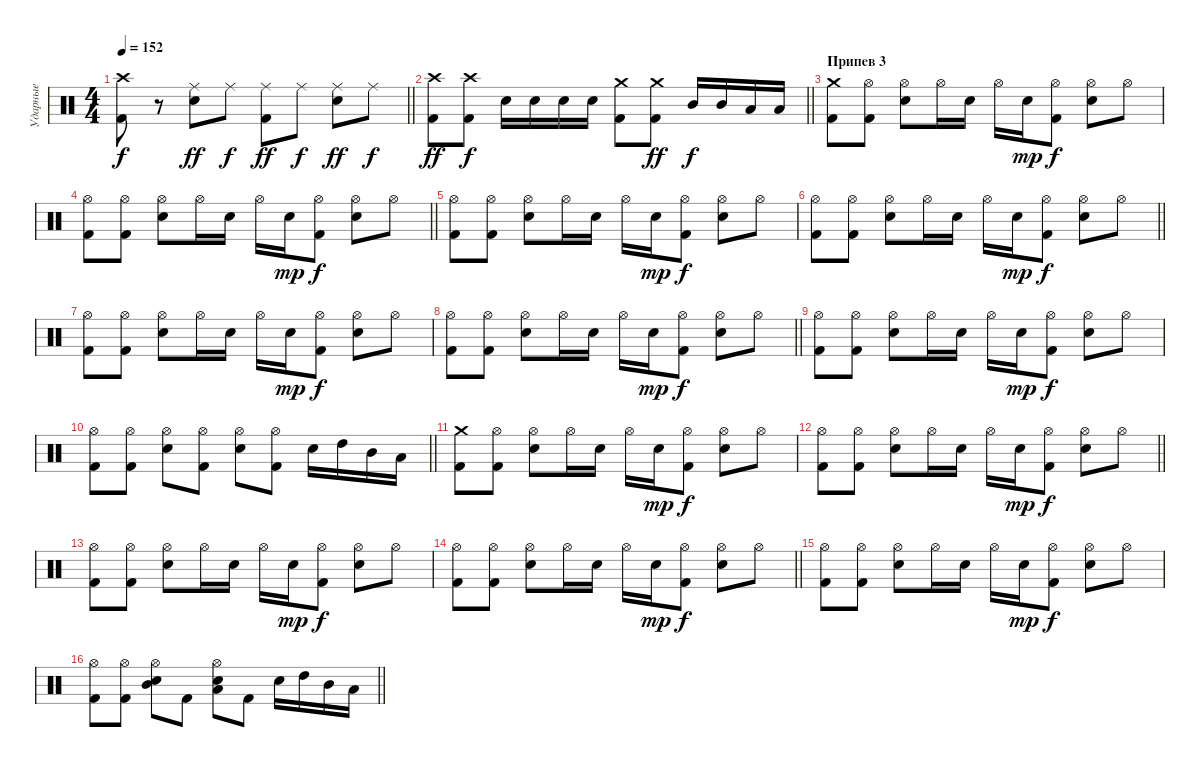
\track ("Ударные" "Ударные") {instrument percussion}
\staff {score}
\articulation defaults
\ts (4 4)
\tempo 152
\clef neutral
\barLineRight lightlight
\ks c
("Crash high (hit)" "Kick (hit) 2").8{dy f} r.8 ("Ride (middle)" "Snare (hit) 2").8{dy ff} "Ride (middle)".8{dy f} ("Ride (middle)" "Kick (hit) 2").8{dy ff} "Ride (middle)".8{dy f} ("Ride (middle)" "Snare (hit) 2").8{dy ff} "Ride (middle)".8{dy f} |
\barLineRight lightlight
("Crash high (hit)" "Kick (hit) 2").8{dy ff} ("Crash high (hit)" "Kick (hit) 2").8{dy f} "Snare (hit) 2".16 "Snare (hit) 2".16 "Snare (hit) 2".16 "Snare (hit) 2".16 ("Crash medium (hit)" "Kick (hit) 2").8 ("Crash medium (hit)" "Kick (hit) 2").8{dy ff} "Mid Tom (hit)".16{dy f} "Mid Tom (hit)".16 "Low Tom (hit)".16 "Low Tom (hit)".16 |
\section ("" "Припев 3")
("Crash medium (hit)" "Kick (hit) 2").8 ("Hi-Hat (open)" "Kick (hit) 2").8 ("Hi-Hat (open)" "Snare (hit) 2").8 "Hi-Hat (open)".16 "Snare (hit) 2".16 "Hi-Hat (open)".16 "Snare (hit) 2".16{dy mp} ("Hi-Hat (open)" "Kick (hit) 2").8{dy f} ("Hi-Hat (open)" "Snare (hit) 2").8 "Hi-Hat (open)".8 |
\barLineRight lightlight
("Hi-Hat (open)" "Kick (hit) 2").8 ("Hi-Hat (open)" "Kick (hit) 2").8 ("Hi-Hat (open)" "Snare (hit) 2").8 "Hi-Hat (open)".16 "Snare (hit) 2".16 "Hi-Hat (open)".16 "Snare (hit) 2".16{dy mp} ("Hi-Hat (open)" "Kick (hit) 2").8{dy f} ("Hi-Hat (open)" "Snare (hit) 2").8 "Hi-Hat (open)".8 |
("Hi-Hat (open)" "Kick (hit) 2").8 ("Hi-Hat (open)" "Kick (hit) 2").8 ("Hi-Hat (open)" "Snare (hit) 2").8 "Hi-Hat (open)".16 "Snare (hit) 2".16 "Hi-Hat (open)".16 "Snare (hit) 2".16{dy mp} ("Hi-Hat (open)" "Kick (hit) 2").8{dy f} ("Hi-Hat (open)" "Snare (hit) 2").8 "Hi-Hat (open)".8 |
\barLineRight lightlight
("Hi-Hat (open)" "Kick (hit) 2").8 ("Hi-Hat (open)" "Kick (hit) 2").8 ("Hi-Hat (open)" "Snare (hit) 2").8 "Hi-Hat (open)".16 "Snare (hit) 2".16 "Hi-Hat (open)".16 "Snare (hit) 2".16{dy mp} ("Hi-Hat (open)" "Kick (hit) 2").8{dy f} ("Hi-Hat (open)" "Snare (hit) 2").8 "Hi-Hat (open)".8 |
("Hi-Hat (open)" "Kick (hit) 2").8 ("Hi-Hat (open)" "Kick (hit) 2").8 ("Hi-Hat (open)" "Snare (hit) 2").8 "Hi-Hat (open)".16 "Snare (hit) 2".16 "Hi-Hat (open)".16 "Snare (hit) 2".16{dy mp} ("Hi-Hat (open)" "Kick (hit) 2").8{dy f} ("Hi-Hat (open)" "Snare (hit) 2").8 "Hi-Hat (open)".8 |
\barLineRight lightlight
("Hi-Hat (open)" "Kick (hit) 2").8 ("Hi-Hat (open)" "Kick (hit) 2").8 ("Hi-Hat (open)" "Snare (hit) 2").8 "Hi-Hat (open)".16 "Snare (hit) 2".16 "Hi-Hat (open)".16 "Snare (hit) 2".16{dy mp} ("Hi-Hat (open)" "Kick (hit) 2").8{dy f} ("Hi-Hat (open)" "Snare (hit) 2").8 "Hi-Hat (open)".8 |
("Hi-Hat (open)" "Kick (hit) 2").8 ("Hi-Hat (open)" "Kick (hit) 2").8 ("Hi-Hat (open)" "Snare (hit) 2").8 "Hi-Hat (open)".16 "Snare (hit) 2".16 "Hi-Hat (open)".16 "Snare (hit) 2".16{dy mp} ("Hi-Hat (open)" "Kick (hit) 2").8{dy f} ("Hi-Hat (open)" "Snare (hit) 2").8 "Hi-Hat (open)".8 |
\barLineRight lightlight
("Hi-Hat (open)" "Kick (hit) 2").8 ("Hi-Hat (open)" "Kick (hit) 2").8 ("Hi-Hat (open)" "Snare (hit) 2").8 ("Hi-Hat (open)" "Kick (hit) 2").8 ("Hi-Hat (open)" "Snare (hit) 2").8 ("Hi-Hat (open)" "Kick (hit) 2").8 "Snare (hit) 2".16 "High Tom (hit)".16 "Mid Tom (hit)".16 "Low Tom (hit)".16 |
("Crash medium (hit)" "Kick (hit) 2").8 ("Hi-Hat (open)" "Kick (hit) 2").8 ("Hi-Hat (open)" "Snare (hit) 2").8 "Hi-Hat (open)".16 "Snare (hit) 2".16 "Hi-Hat (open)".16 "Snare (hit) 2".16{dy mp} ("Hi-Hat (open)" "Kick (hit) 2").8{dy f} ("Hi-Hat (open)" "Snare (hit) 2").8 "Hi-Hat (open)".8 |
\barLineRight lightlight
("Hi-Hat (open)" "Kick (hit) 2").8 ("Hi-Hat (open)" "Kick (hit) 2").8 ("Hi-Hat (open)" "Snare (hit) 2").8 "Hi-Hat (open)".16 "Snare (hit) 2".16 "Hi-Hat (open)".16 "Snare (hit) 2".16{dy mp} ("Hi-Hat (open)" "Kick (hit) 2").8{dy f} ("Hi-Hat (open)" "Snare (hit) 2").8 "Hi-Hat (open)".8 |
("Hi-Hat (open)" "Kick (hit) 2").8 ("Hi-Hat (open)" "Kick (hit) 2").8 ("Hi-Hat (open)" "Snare (hit) 2").8 "Hi-Hat (open)".16 "Snare (hit) 2".16 "Hi-Hat (open)".16 "Snare (hit) 2".16{dy mp} ("Hi-Hat (open)" "Kick (hit) 2").8{dy f} ("Hi-Hat (open)" "Snare (hit) 2").8 "Hi-Hat (open)".8 |
\barLineRight lightlight
("Hi-Hat (open)" "Kick (hit) 2").8 ("Hi-Hat (open)" "Kick (hit) 2").8 ("Hi-Hat (open)" "Snare (hit) 2").8 "Hi-Hat (open)".16 "Snare (hit) 2".16 "Hi-Hat (open)".16 "Snare (hit) 2".16{dy mp} ("Hi-Hat (open)" "Kick (hit) 2").8{dy f} ("Hi-Hat (open)" "Snare (hit) 2").8 "Hi-Hat (open)".8 |
("Hi-Hat (open)" "Kick (hit) 2").8 ("Hi-Hat (open)" "Kick (hit) 2").8 ("Hi-Hat (open)" "Snare (hit) 2").8 "Hi-Hat (open)".16 "Snare (hit) 2".16 "Hi-Hat (open)".16 "Snare (hit) 2".16{dy mp} ("Hi-Hat (open)" "Kick (hit) 2").8{dy f} ("Hi-Hat (open)" "Snare (hit) 2").8 "Hi-Hat (open)".8 |
\barLineRight lightlight
("Hi-Hat (open)" "Kick (hit) 2").8 ("Hi-Hat (open)" "Kick (hit) 2").8 ("Hi-Hat (open)" "Snare (hit) 2" "Mid Tom (hit)").8 "Kick (hit) 2".8 ("Hi-Hat (open)" "Snare (hit) 2" "Low Tom (hit)").8 "Kick (hit) 2".8 "Snare (hit) 2".16 "High Tom (hit)".16 "Mid Tom (hit)".16 "Low Tom (hit)".16
